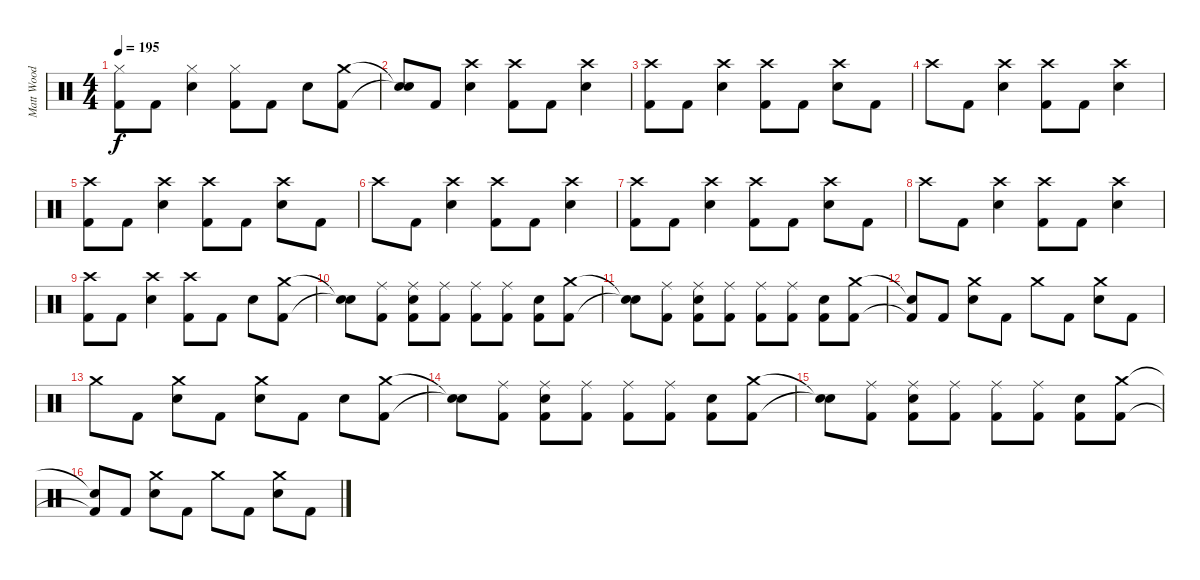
\track ("Matt Wood" "Matt Wood") {instrument percussion}
\staff {score}
\articulation defaults
\ts (4 4)
\tempo 195
\clef neutral
\ks c
("Hi-Hat (closed)" "Kick (hit) 2").8{dy f} "Kick (hit) 2".8 ("Hi-Hat (closed)" "Snare (hit) 2").4 ("Hi-Hat (closed)" "Kick (hit) 2").8 "Kick (hit) 2".8 "Snare (hit) 2".8 ("Crash medium (hit)" "Kick (hit) 2").8 |
("Snare (hit)"{t} "Snare (hit)"{t}).8 "Kick (hit) 2".8 ("Crash high (hit)" "Snare (hit) 2").4 ("Crash high (hit)" "Kick (hit) 2").8 "Kick (hit) 2".8 ("Crash high (hit)" "Snare (hit) 2").4 |
("Crash high (hit)" "Kick (hit) 2").8 "Kick (hit) 2".8 ("Crash high (hit)" "Snare (hit) 2").4 ("Crash high (hit)" "Kick (hit) 2").8 "Kick (hit) 2".8 ("Crash high (hit)" "Snare (hit) 2").8 "Kick (hit) 2".8 |
"Crash high (hit)".8 "Kick (hit) 2".8 ("Crash high (hit)" "Snare (hit) 2").4 ("Crash high (hit)" "Kick (hit) 2").8 "Kick (hit) 2".8 ("Crash high (hit)" "Snare (hit) 2").4 |
("Crash high (hit)" "Kick (hit) 2").8 "Kick (hit) 2".8 ("Crash high (hit)" "Snare (hit) 2").4 ("Crash high (hit)" "Kick (hit) 2").8 "Kick (hit) 2".8 ("Crash high (hit)" "Snare (hit) 2").8 "Kick (hit) 2".8 |
"Crash high (hit)".8 "Kick (hit) 2".8 ("Crash high (hit)" "Snare (hit) 2").4 ("Crash high (hit)" "Kick (hit) 2").8 "Kick (hit) 2".8 ("Crash high (hit)" "Snare (hit) 2").4 |
("Crash high (hit)" "Kick (hit) 2").8 "Kick (hit) 2".8 ("Crash high (hit)" "Snare (hit) 2").4 ("Crash high (hit)" "Kick (hit) 2").8 "Kick (hit) 2".8 ("Crash high (hit)" "Snare (hit) 2").8 "Kick (hit) 2".8 |
"Crash high (hit)".8 "Kick (hit) 2".8 ("Crash high (hit)" "Snare (hit) 2").4 ("Crash high (hit)" "Kick (hit) 2").8 "Kick (hit) 2".8 ("Crash high (hit)" "Snare (hit) 2").4 |
("Crash high (hit)" "Kick (hit) 2").8 "Kick (hit) 2".8 ("Crash high (hit)" "Snare (hit) 2").4 ("Crash high (hit)" "Kick (hit) 2").8 "Kick (hit) 2".8 "Snare (hit) 2".8 ("Crash medium (hit)" "Kick (hit) 2").8 |
("Snare (hit)"{t} "Snare (hit)"{t}).8 ("Ride (middle)" "Kick (hit) 2").8 ("Ride (middle)" "Snare (hit) 2" "Kick (hit) 2").8 ("Ride (middle)" "Kick (hit) 2").8 ("Ride (middle)" "Kick (hit) 2").8 ("Ride (middle)" "Kick (hit) 2").8 ("Snare (hit) 2" "Kick (hit) 2").8 ("Crash medium (hit)" "Kick (hit) 2").8 |
("Snare (hit)"{t} "Snare (hit)"{t}).8 ("Ride (middle)" "Kick (hit) 2").8 ("Ride (middle)" "Snare (hit) 2" "Kick (hit) 2").8 ("Ride (middle)" "Kick (hit) 2").8 ("Ride (middle)" "Kick (hit) 2").8 ("Ride (middle)" "Kick (hit) 2").8 ("Snare (hit) 2" "Kick (hit) 2").8 ("Crash medium (hit)" "Kick (hit) 2").8 |
("Snare (hit)"{t} "Kick (hit) 2"{t}).8 "Kick (hit) 2".8 ("Crash medium (hit)" "Snare (hit) 2").8 "Kick (hit) 2".8 "Crash medium (hit)".8 "Kick (hit) 2".8 ("Crash medium (hit)" "Snare (hit) 2").8 "Kick (hit) 2".8 |
"Crash medium (hit)".8 "Kick (hit) 2".8 ("Crash medium (hit)" "Snare (hit) 2").8 "Kick (hit) 2".8 ("Crash medium (hit)" "Snare (hit) 2").8 "Kick (hit) 2".8 "Snare (hit) 2".8 ("Crash medium (hit)" "Kick (hit) 2").8 |
("Snare (hit)"{t} "Snare (hit)"{t}).8 ("Ride (middle)" "Kick (hit) 2").8 ("Ride (middle)" "Snare (hit) 2" "Kick (hit) 2").8 ("Ride (middle)" "Kick (hit) 2").8 ("Ride (middle)" "Kick (hit) 2").8 ("Ride (middle)" "Kick (hit) 2").8 ("Snare (hit) 2" "Kick (hit) 2").8 ("Crash medium (hit)" "Kick (hit) 2").8 |
("Snare (hit)"{t} "Snare (hit)"{t}).8 ("Ride (middle)" "Kick (hit) 2").8 ("Ride (middle)" "Snare (hit) 2" "Kick (hit) 2").8 ("Ride (middle)" "Kick (hit) 2").8 ("Ride (middle)" "Kick (hit) 2").8 ("Ride (middle)" "Kick (hit) 2").8 ("Snare (hit) 2" "Kick (hit) 2").8 ("Crash medium (hit)" "Kick (hit) 2").8 |
("Snare (hit)"{t} "Kick (hit) 2"{t}).8 "Kick (hit) 2".8 ("Crash medium (hit)" "Snare (hit) 2").8 "Kick (hit) 2".8 "Crash medium (hit)".8 "Kick (hit) 2".8 ("Crash medium (hit)" "Snare (hit) 2").8 "Kick (hit) 2".8
